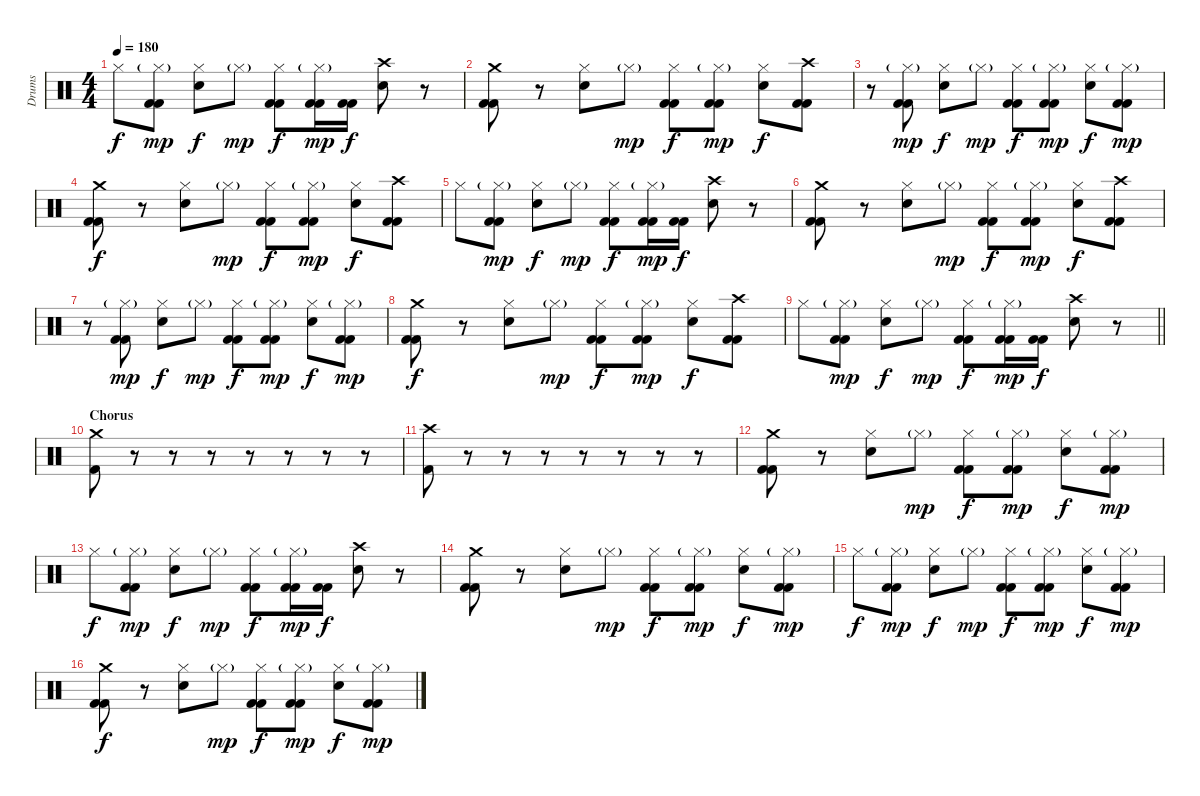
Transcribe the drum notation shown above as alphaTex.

\track ("Drums" "Drums") {instrument percussion}
\staff {score}
\articulation defaults
\ts (4 4)
\tempo 180
\clef neutral
\ks c "Hi-Hat (closed)".8{dy f}
("Hi-Hat (closed)"{g} "Kick (hit) 2" "Kick (hit) 2").8{dy mp} ("Hi-Hat (closed)" "Snare (hit) 2").8{dy f} "Hi-Hat (closed)"{g}.8{dy mp} ("Hi-Hat (closed)" "Kick (hit) 2" "Kick (hit) 2").8{dy f} ("Hi-Hat (closed)"{g} "Kick (hit) 2" "Kick (hit) 2").16{dy mp} ("Kick (hit) 2" "Kick (hit) 2").16{dy f} ("Crash high (hit)" "Snare (hit) 2").8 r.8 |
("Crash medium (hit)" "Kick (hit) 2" "Kick (hit) 2").8 r.8 ("Hi-Hat (closed)" "Snare (hit) 2").8 "Hi-Hat (closed)"{g}.8{dy mp} ("Hi-Hat (closed)" "Kick (hit) 2" "Kick (hit) 2").8{dy f} ("Hi-Hat (closed)"{g} "Kick (hit) 2" "Kick (hit) 2").8{dy mp} ("Hi-Hat (closed)" "Snare (hit) 2").8{dy f} ("Crash high (hit)" "Kick (hit) 2" "Kick (hit) 2").8 |
r.8 ("Hi-Hat (closed)"{g} "Kick (hit) 2" "Kick (hit) 2").8{dy mp} ("Hi-Hat (closed)" "Snare (hit) 2").8{dy f} "Hi-Hat (closed)"{g}.8{dy mp} ("Hi-Hat (closed)" "Kick (hit) 2" "Kick (hit) 2").8{dy f} ("Hi-Hat (closed)"{g} "Kick (hit) 2" "Kick (hit) 2").8{dy mp} ("Hi-Hat (closed)" "Snare (hit) 2").8{dy f} ("Hi-Hat (closed)"{g} "Kick (hit) 2" "Kick (hit) 2").8{dy mp} |
("Crash medium (hit)" "Kick (hit) 2" "Kick (hit) 2").8{dy f} r.8 ("Hi-Hat (closed)" "Snare (hit) 2").8 "Hi-Hat (closed)"{g}.8{dy mp} ("Hi-Hat (closed)" "Kick (hit) 2" "Kick (hit) 2").8{dy f} ("Hi-Hat (closed)"{g} "Kick (hit) 2" "Kick (hit) 2").8{dy mp} ("Hi-Hat (closed)" "Snare (hit) 2").8{dy f} ("Crash high (hit)" "Kick (hit) 2" "Kick (hit) 2").8 |
"Hi-Hat (closed)".8 ("Hi-Hat (closed)"{g} "Kick (hit) 2" "Kick (hit) 2").8{dy mp} ("Hi-Hat (closed)" "Snare (hit) 2").8{dy f} "Hi-Hat (closed)"{g}.8{dy mp} ("Hi-Hat (closed)" "Kick (hit) 2" "Kick (hit) 2").8{dy f} ("Hi-Hat (closed)"{g} "Kick (hit) 2" "Kick (hit) 2").16{dy mp} ("Kick (hit) 2" "Kick (hit) 2").16{dy f} ("Crash high (hit)" "Snare (hit) 2").8 r.8 |
("Crash medium (hit)" "Kick (hit) 2" "Kick (hit) 2").8 r.8 ("Hi-Hat (closed)" "Snare (hit) 2").8 "Hi-Hat (closed)"{g}.8{dy mp} ("Hi-Hat (closed)" "Kick (hit) 2" "Kick (hit) 2").8{dy f} ("Hi-Hat (closed)"{g} "Kick (hit) 2" "Kick (hit) 2").8{dy mp} ("Hi-Hat (closed)" "Snare (hit) 2").8{dy f} ("Crash high (hit)" "Kick (hit) 2" "Kick (hit) 2").8 |
r.8 ("Hi-Hat (closed)"{g} "Kick (hit) 2" "Kick (hit) 2").8{dy mp} ("Hi-Hat (closed)" "Snare (hit) 2").8{dy f} "Hi-Hat (closed)"{g}.8{dy mp} ("Hi-Hat (closed)" "Kick (hit) 2" "Kick (hit) 2").8{dy f} ("Hi-Hat (closed)"{g} "Kick (hit) 2" "Kick (hit) 2").8{dy mp} ("Hi-Hat (closed)" "Snare (hit) 2").8{dy f} ("Hi-Hat (closed)"{g} "Kick (hit) 2" "Kick (hit) 2").8{dy mp} |
("Crash medium (hit)" "Kick (hit) 2" "Kick (hit) 2").8{dy f} r.8 ("Hi-Hat (closed)" "Snare (hit) 2").8 "Hi-Hat (closed)"{g}.8{dy mp} ("Hi-Hat (closed)" "Kick (hit) 2" "Kick (hit) 2").8{dy f} ("Hi-Hat (closed)"{g} "Kick (hit) 2" "Kick (hit) 2").8{dy mp} ("Hi-Hat (closed)" "Snare (hit) 2").8{dy f} ("Crash high (hit)" "Kick (hit) 2" "Kick (hit) 2").8 |
\barLineRight lightlight "Hi-Hat (closed)".8
("Hi-Hat (closed)"{g} "Kick (hit) 2" "Kick (hit) 2").8{dy mp} ("Hi-Hat (closed)" "Snare (hit) 2").8{dy f} "Hi-Hat (closed)"{g}.8{dy mp} ("Hi-Hat (closed)" "Kick (hit) 2" "Kick (hit) 2").8{dy f} ("Hi-Hat (closed)"{g} "Kick (hit) 2" "Kick (hit) 2").16{dy mp} ("Kick (hit) 2" "Kick (hit) 2").16{dy f} ("Crash high (hit)" "Snare (hit) 2").8 r.8 |
\section ("" "Chorus")
("Crash medium (hit)" "Kick (hit) 2").8 r.8 r.8 r.8 r.8 r.8 r.8 r.8 |
("Crash high (hit)" "Kick (hit) 2").8 r.8 r.8 r.8 r.8 r.8 r.8 r.8 |
("Crash medium (hit)" "Kick (hit) 2" "Kick (hit) 2").8 r.8 ("Hi-Hat (closed)" "Snare (hit) 2").8 "Hi-Hat (closed)"{g}.8{dy mp} ("Hi-Hat (closed)" "Kick (hit) 2" "Kick (hit) 2").8{dy f} ("Hi-Hat (closed)"{g} "Kick (hit) 2" "Kick (hit) 2").8{dy mp} ("Hi-Hat (closed)" "Snare (hit) 2").8{dy f} ("Hi-Hat (closed)"{g} "Kick (hit) 2" "Kick (hit) 2").8{dy mp} |
"Hi-Hat (closed)".8{dy f} ("Hi-Hat (closed)"{g} "Kick (hit) 2" "Kick (hit) 2").8{dy mp} ("Hi-Hat (closed)" "Snare (hit) 2").8{dy f} "Hi-Hat (closed)"{g}.8{dy mp} ("Hi-Hat (closed)" "Kick (hit) 2" "Kick (hit) 2").8{dy f} ("Hi-Hat (closed)"{g} "Kick (hit) 2" "Kick (hit) 2").16{dy mp} ("Kick (hit) 2" "Kick (hit) 2").16{dy f} ("Crash high (hit)" "Snare (hit) 2").8 r.8 |
("Crash medium (hit)" "Kick (hit) 2" "Kick (hit) 2").8 r.8 ("Hi-Hat (closed)" "Snare (hit) 2").8 "Hi-Hat (closed)"{g}.8{dy mp} ("Hi-Hat (closed)" "Kick (hit) 2" "Kick (hit) 2").8{dy f} ("Hi-Hat (closed)"{g} "Kick (hit) 2" "Kick (hit) 2").8{dy mp} ("Hi-Hat (closed)" "Snare (hit) 2").8{dy f} ("Hi-Hat (closed)"{g} "Kick (hit) 2" "Kick (hit) 2").8{dy mp} |
"Hi-Hat (closed)".8{dy f} ("Hi-Hat (closed)"{g} "Kick (hit) 2" "Kick (hit) 2").8{dy mp} ("Hi-Hat (closed)" "Snare (hit) 2").8{dy f} "Hi-Hat (closed)"{g}.8{dy mp} ("Hi-Hat (closed)" "Kick (hit) 2" "Kick (hit) 2").8{dy f} ("Hi-Hat (closed)"{g} "Kick (hit) 2" "Kick (hit) 2").8{dy mp} ("Hi-Hat (closed)" "Snare (hit) 2").8{dy f} ("Hi-Hat (closed)"{g} "Kick (hit) 2" "Kick (hit) 2").8{dy mp} |
("Crash medium (hit)" "Kick (hit) 2" "Kick (hit) 2").8{dy f} r.8 ("Hi-Hat (closed)" "Snare (hit) 2").8 "Hi-Hat (closed)"{g}.8{dy mp} ("Hi-Hat (closed)" "Kick (hit) 2" "Kick (hit) 2").8{dy f} ("Hi-Hat (closed)"{g} "Kick (hit) 2" "Kick (hit) 2").8{dy mp} ("Hi-Hat (closed)" "Snare (hit) 2").8{dy f} ("Hi-Hat (closed)"{g} "Kick (hit) 2" "Kick (hit) 2").8{dy mp}
